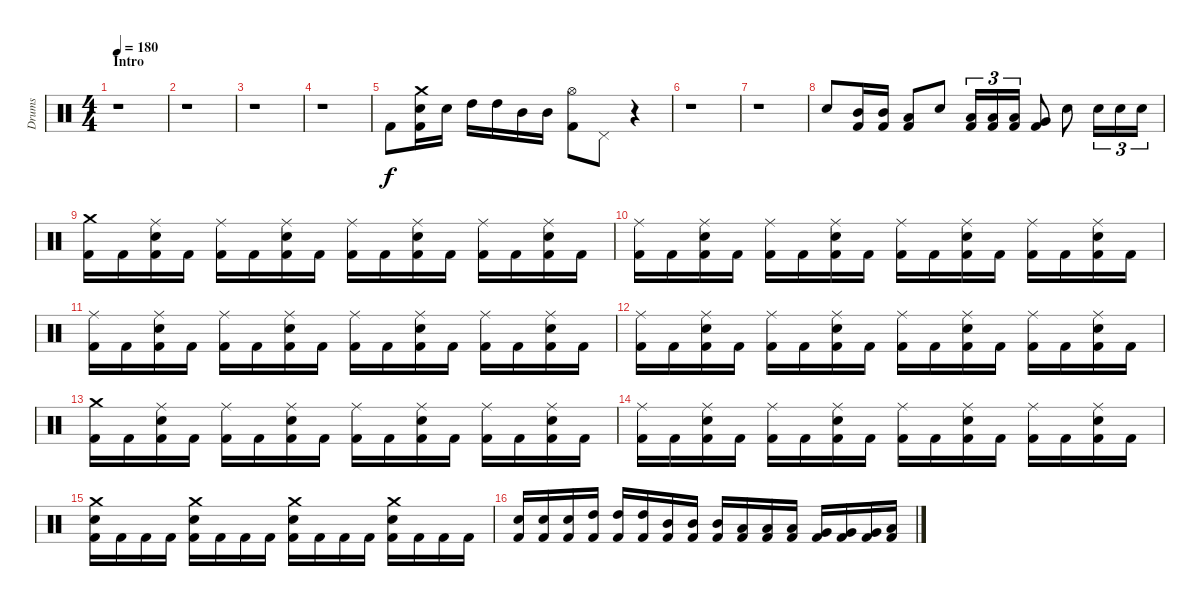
\track ("Drums" "Drums") {instrument percussion}
\staff {score}
\articulation defaults
\ts (4 4)
\section ("" "Intro")
\tempo 180
\clef neutral
\ks c
r.1{dy f} |
r.1 |
r.1 |
r.1 |
"Kick (hit) 2".8 ("Kick (hit) 2" "Electric Snare (hit)" "Crash medium (hit)").16 "Electric Snare (hit)".16 "High Tom (hit)".16 "High Tom (hit)".16 "Mid Tom (hit)".16 "Mid Tom (hit)".16 ("Kick (hit) 2" "Hi-Hat (open)").8 "Pedal Hi-Hat (hit)".8 r.4 |
r.1 |
r.1 |
"Electric Snare (hit)".8 ("Kick (hit) 2" "Mid Tom (hit)").16 ("Kick (hit) 2" "Mid Tom (hit)").16 ("Kick (hit) 2" "Low Tom (hit)").8 "Electric Snare (hit)".8 ("Kick (hit) 2" "Low Tom (hit)").16{tu (3 2)} ("Kick (hit) 2" "Low Tom (hit)").16{tu (3 2)} ("Kick (hit) 2" "Low Tom (hit)").16{tu (3 2)} ("Kick (hit) 2" "Very Low Tom (hit)").8 "Electric Snare (hit)".8 "Electric Snare (hit)".16{tu (3 2)} "Electric Snare (hit)".16{tu (3 2)} "Electric Snare (hit)".16{tu (3 2)} |
("Kick (hit) 2" "Crash medium (hit)").16 "Kick (hit) 2".16 ("Kick (hit) 2" "Electric Snare (hit)" "Ride (middle)").16 "Kick (hit) 2".16 ("Kick (hit) 2" "Ride (middle)").16 "Kick (hit) 2".16 ("Kick (hit) 2" "Electric Snare (hit)" "Ride (middle)").16 "Kick (hit) 2".16 ("Kick (hit) 2" "Ride (middle)").16 "Kick (hit) 2".16 ("Kick (hit) 2" "Electric Snare (hit)" "Ride (middle)").16 "Kick (hit) 2".16 ("Kick (hit) 2" "Ride (middle)").16 "Kick (hit) 2".16 ("Kick (hit) 2" "Electric Snare (hit)" "Ride (middle)").16 "Kick (hit) 2".16 |
("Kick (hit) 2" "Ride (middle)").16 "Kick (hit) 2".16 ("Kick (hit) 2" "Electric Snare (hit)" "Ride (middle)").16 "Kick (hit) 2".16 ("Kick (hit) 2" "Ride (middle)").16 "Kick (hit) 2".16 ("Kick (hit) 2" "Electric Snare (hit)" "Ride (middle)").16 "Kick (hit) 2".16 ("Kick (hit) 2" "Ride (middle)").16 "Kick (hit) 2".16 ("Kick (hit) 2" "Electric Snare (hit)" "Ride (middle)").16 "Kick (hit) 2".16 ("Kick (hit) 2" "Ride (middle)").16 "Kick (hit) 2".16 ("Kick (hit) 2" "Electric Snare (hit)" "Ride (middle)").16 "Kick (hit) 2".16 |
("Kick (hit) 2" "Ride (middle)").16 "Kick (hit) 2".16 ("Kick (hit) 2" "Electric Snare (hit)" "Ride (middle)").16 "Kick (hit) 2".16 ("Kick (hit) 2" "Ride (middle)").16 "Kick (hit) 2".16 ("Kick (hit) 2" "Electric Snare (hit)" "Ride (middle)").16 "Kick (hit) 2".16 ("Kick (hit) 2" "Ride (middle)").16 "Kick (hit) 2".16 ("Kick (hit) 2" "Electric Snare (hit)" "Ride (middle)").16 "Kick (hit) 2".16 ("Kick (hit) 2" "Ride (middle)").16 "Kick (hit) 2".16 ("Kick (hit) 2" "Electric Snare (hit)" "Ride (middle)").16 "Kick (hit) 2".16 |
("Kick (hit) 2" "Ride (middle)").16 "Kick (hit) 2".16 ("Kick (hit) 2" "Electric Snare (hit)" "Ride (middle)").16 "Kick (hit) 2".16 ("Kick (hit) 2" "Ride (middle)").16 "Kick (hit) 2".16 ("Kick (hit) 2" "Electric Snare (hit)" "Ride (middle)").16 "Kick (hit) 2".16 ("Kick (hit) 2" "Ride (middle)").16 "Kick (hit) 2".16 ("Kick (hit) 2" "Electric Snare (hit)" "Ride (middle)").16 "Kick (hit) 2".16 ("Kick (hit) 2" "Ride (middle)").16 "Kick (hit) 2".16 ("Kick (hit) 2" "Electric Snare (hit)" "Ride (middle)").16 "Kick (hit) 2".16 |
("Kick (hit) 2" "Crash medium (hit)").16 "Kick (hit) 2".16 ("Kick (hit) 2" "Electric Snare (hit)" "Ride (middle)").16 "Kick (hit) 2".16 ("Kick (hit) 2" "Ride (middle)").16 "Kick (hit) 2".16 ("Kick (hit) 2" "Electric Snare (hit)" "Ride (middle)").16 "Kick (hit) 2".16 ("Kick (hit) 2" "Ride (middle)").16 "Kick (hit) 2".16 ("Kick (hit) 2" "Electric Snare (hit)" "Ride (middle)").16 "Kick (hit) 2".16 ("Kick (hit) 2" "Ride (middle)").16 "Kick (hit) 2".16 ("Kick (hit) 2" "Electric Snare (hit)" "Ride (middle)").16 "Kick (hit) 2".16 |
("Kick (hit) 2" "Ride (middle)").16 "Kick (hit) 2".16 ("Kick (hit) 2" "Electric Snare (hit)" "Ride (middle)").16 "Kick (hit) 2".16 ("Kick (hit) 2" "Ride (middle)").16 "Kick (hit) 2".16 ("Kick (hit) 2" "Electric Snare (hit)" "Ride (middle)").16 "Kick (hit) 2".16 ("Kick (hit) 2" "Ride (middle)").16 "Kick (hit) 2".16 ("Kick (hit) 2" "Electric Snare (hit)" "Ride (middle)").16 "Kick (hit) 2".16 ("Kick (hit) 2" "Ride (middle)").16 "Kick (hit) 2".16 ("Kick (hit) 2" "Electric Snare (hit)" "Ride (middle)").16 "Kick (hit) 2".16 |
("Kick (hit) 2" "Electric Snare (hit)" "Crash medium (hit)").16 "Kick (hit) 2".16 "Kick (hit) 2".16 "Kick (hit) 2".16 ("Kick (hit) 2" "Electric Snare (hit)" "Crash medium (hit)").16 "Kick (hit) 2".16 "Kick (hit) 2".16 "Kick (hit) 2".16 ("Kick (hit) 2" "Electric Snare (hit)" "Crash medium (hit)").16 "Kick (hit) 2".16 "Kick (hit) 2".16 "Kick (hit) 2".16 ("Kick (hit) 2" "Electric Snare (hit)" "Crash medium (hit)").16 "Kick (hit) 2".16 "Kick (hit) 2".16 "Kick (hit) 2".16 |
("Kick (hit) 2" "Electric Snare (hit)").16 ("Kick (hit) 2" "Electric Snare (hit)").16 ("Kick (hit) 2" "Electric Snare (hit)").16 ("Kick (hit) 2" "High Tom (hit)").16 ("Kick (hit) 2" "High Tom (hit)").16 ("Kick (hit) 2" "High Tom (hit)").16 ("Kick (hit) 2" "Mid Tom (hit)").16 ("Kick (hit) 2" "Mid Tom (hit)").16 ("Kick (hit) 2" "Mid Tom (hit)").16 ("Kick (hit) 2" "Low Tom (hit)").16 ("Kick (hit) 2" "Low Tom (hit)").16 ("Kick (hit) 2" "Low Tom (hit)").16 ("Kick (hit) 2" "Very Low Tom (hit)").16 ("Kick (hit) 2" "Very Low Tom (hit)").16 ("Kick (hit) 2" "Very Low Tom (hit)").16 ("Kick (hit) 2" "Low Floor Tom (hit)").16
